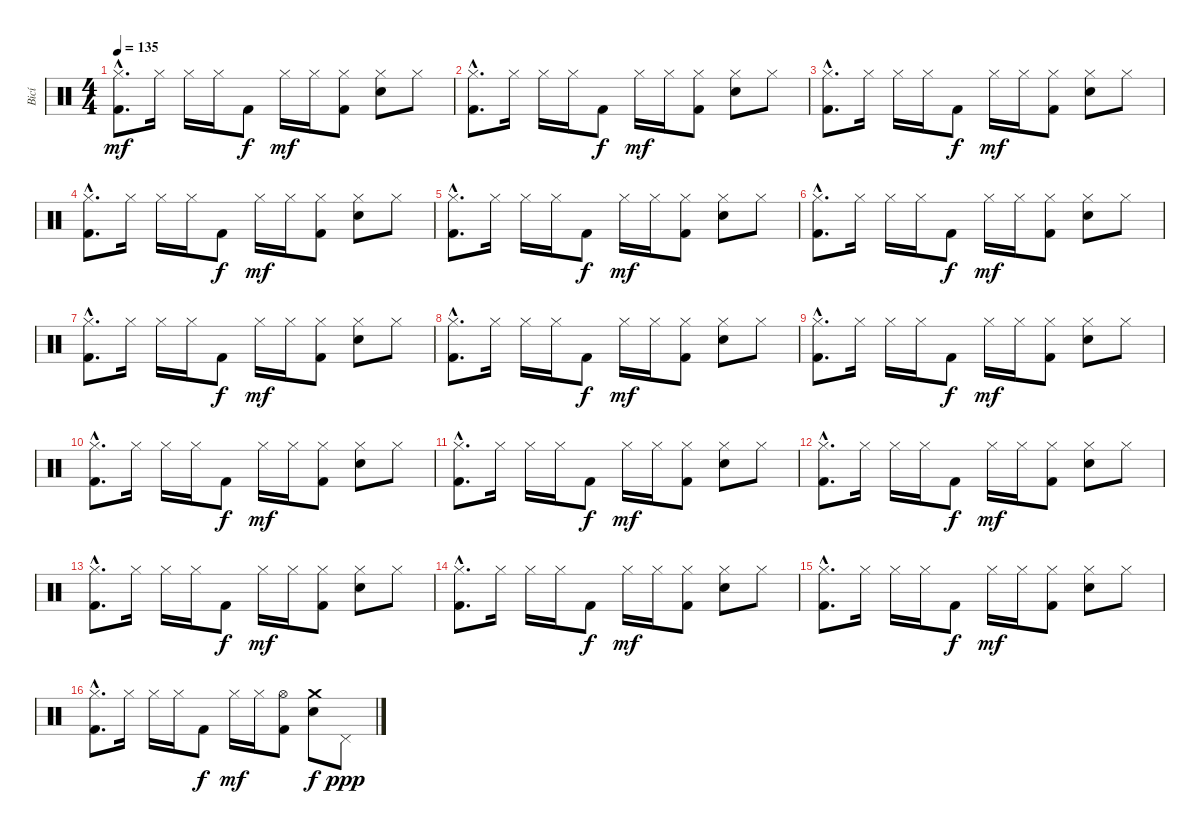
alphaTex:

\track ("Bicí" "Bicí") {instrument percussion}
\staff {score}
\articulation defaults
\ts (4 4)
\tempo 135
\clef neutral
\ks c
("Hi-Hat (closed)"{hac} "Kick (hit) 2"{hac}).8{d dy mf} "Hi-Hat (closed)".16 "Hi-Hat (closed)".16 "Hi-Hat (closed)".16 "Kick (hit) 2".8{dy f} "Hi-Hat (closed)".16{dy mf} "Hi-Hat (closed)".16 ("Hi-Hat (closed)" "Kick (hit) 2").8 ("Hi-Hat (closed)" "Electric Snare (hit)").8 "Hi-Hat (closed)".8 |
("Hi-Hat (closed)"{hac} "Kick (hit) 2"{hac}).8{d} "Hi-Hat (closed)".16 "Hi-Hat (closed)".16 "Hi-Hat (closed)".16 "Kick (hit) 2".8{dy f} "Hi-Hat (closed)".16{dy mf} "Hi-Hat (closed)".16 ("Hi-Hat (closed)" "Kick (hit) 2").8 ("Hi-Hat (closed)" "Electric Snare (hit)").8 "Hi-Hat (closed)".8 |
("Hi-Hat (closed)"{hac} "Kick (hit) 2"{hac}).8{d} "Hi-Hat (closed)".16 "Hi-Hat (closed)".16 "Hi-Hat (closed)".16 "Kick (hit) 2".8{dy f} "Hi-Hat (closed)".16{dy mf} "Hi-Hat (closed)".16 ("Hi-Hat (closed)" "Kick (hit) 2").8 ("Hi-Hat (closed)" "Electric Snare (hit)").8 "Hi-Hat (closed)".8 |
("Hi-Hat (closed)"{hac} "Kick (hit) 2"{hac}).8{d} "Hi-Hat (closed)".16 "Hi-Hat (closed)".16 "Hi-Hat (closed)".16 "Kick (hit) 2".8{dy f} "Hi-Hat (closed)".16{dy mf} "Hi-Hat (closed)".16 ("Hi-Hat (closed)" "Kick (hit) 2").8 ("Hi-Hat (closed)" "Electric Snare (hit)").8 "Hi-Hat (closed)".8 |
("Hi-Hat (closed)"{hac} "Kick (hit) 2"{hac}).8{d} "Hi-Hat (closed)".16 "Hi-Hat (closed)".16 "Hi-Hat (closed)".16 "Kick (hit) 2".8{dy f} "Hi-Hat (closed)".16{dy mf} "Hi-Hat (closed)".16 ("Hi-Hat (closed)" "Kick (hit) 2").8 ("Hi-Hat (closed)" "Electric Snare (hit)").8 "Hi-Hat (closed)".8 |
("Hi-Hat (closed)"{hac} "Kick (hit) 2"{hac}).8{d} "Hi-Hat (closed)".16 "Hi-Hat (closed)".16 "Hi-Hat (closed)".16 "Kick (hit) 2".8{dy f} "Hi-Hat (closed)".16{dy mf} "Hi-Hat (closed)".16 ("Hi-Hat (closed)" "Kick (hit) 2").8 ("Hi-Hat (closed)" "Electric Snare (hit)").8 "Hi-Hat (closed)".8 |
("Hi-Hat (closed)"{hac} "Kick (hit) 2"{hac}).8{d} "Hi-Hat (closed)".16 "Hi-Hat (closed)".16 "Hi-Hat (closed)".16 "Kick (hit) 2".8{dy f} "Hi-Hat (closed)".16{dy mf} "Hi-Hat (closed)".16 ("Hi-Hat (closed)" "Kick (hit) 2").8 ("Hi-Hat (closed)" "Electric Snare (hit)").8 "Hi-Hat (closed)".8 |
("Hi-Hat (closed)"{hac} "Kick (hit) 2"{hac}).8{d} "Hi-Hat (closed)".16 "Hi-Hat (closed)".16 "Hi-Hat (closed)".16 "Kick (hit) 2".8{dy f} "Hi-Hat (closed)".16{dy mf} "Hi-Hat (closed)".16 ("Hi-Hat (closed)" "Kick (hit) 2").8 ("Hi-Hat (closed)" "Electric Snare (hit)").8 "Hi-Hat (closed)".8 |
("Hi-Hat (closed)"{hac} "Kick (hit) 2"{hac}).8{d} "Hi-Hat (closed)".16 "Hi-Hat (closed)".16 "Hi-Hat (closed)".16 "Kick (hit) 2".8{dy f} "Hi-Hat (closed)".16{dy mf} "Hi-Hat (closed)".16 ("Hi-Hat (closed)" "Kick (hit) 2").8 ("Hi-Hat (closed)" "Electric Snare (hit)").8 "Hi-Hat (closed)".8 |
("Hi-Hat (closed)"{hac} "Kick (hit) 2"{hac}).8{d} "Hi-Hat (closed)".16 "Hi-Hat (closed)".16 "Hi-Hat (closed)".16 "Kick (hit) 2".8{dy f} "Hi-Hat (closed)".16{dy mf} "Hi-Hat (closed)".16 ("Hi-Hat (closed)" "Kick (hit) 2").8 ("Hi-Hat (closed)" "Electric Snare (hit)").8 "Hi-Hat (closed)".8 |
("Hi-Hat (closed)"{hac} "Kick (hit) 2"{hac}).8{d} "Hi-Hat (closed)".16 "Hi-Hat (closed)".16 "Hi-Hat (closed)".16 "Kick (hit) 2".8{dy f} "Hi-Hat (closed)".16{dy mf} "Hi-Hat (closed)".16 ("Hi-Hat (closed)" "Kick (hit) 2").8 ("Hi-Hat (closed)" "Electric Snare (hit)").8 "Hi-Hat (closed)".8 |
("Hi-Hat (closed)"{hac} "Kick (hit) 2"{hac}).8{d} "Hi-Hat (closed)".16 "Hi-Hat (closed)".16 "Hi-Hat (closed)".16 "Kick (hit) 2".8{dy f} "Hi-Hat (closed)".16{dy mf} "Hi-Hat (closed)".16 ("Hi-Hat (closed)" "Kick (hit) 2").8 ("Hi-Hat (closed)" "Electric Snare (hit)").8 "Hi-Hat (closed)".8 |
("Hi-Hat (closed)"{hac} "Kick (hit) 2"{hac}).8{d} "Hi-Hat (closed)".16 "Hi-Hat (closed)".16 "Hi-Hat (closed)".16 "Kick (hit) 2".8{dy f} "Hi-Hat (closed)".16{dy mf} "Hi-Hat (closed)".16 ("Hi-Hat (closed)" "Kick (hit) 2").8 ("Hi-Hat (closed)" "Electric Snare (hit)").8 "Hi-Hat (closed)".8 |
("Hi-Hat (closed)"{hac} "Kick (hit) 2"{hac}).8{d} "Hi-Hat (closed)".16 "Hi-Hat (closed)".16 "Hi-Hat (closed)".16 "Kick (hit) 2".8{dy f} "Hi-Hat (closed)".16{dy mf} "Hi-Hat (closed)".16 ("Hi-Hat (closed)" "Kick (hit) 2").8 ("Hi-Hat (closed)" "Electric Snare (hit)").8 "Hi-Hat (closed)".8 |
("Hi-Hat (closed)"{hac} "Kick (hit) 2"{hac}).8{d} "Hi-Hat (closed)".16 "Hi-Hat (closed)".16 "Hi-Hat (closed)".16 "Kick (hit) 2".8{dy f} "Hi-Hat (closed)".16{dy mf} "Hi-Hat (closed)".16 ("Hi-Hat (closed)" "Kick (hit) 2").8 ("Hi-Hat (closed)" "Electric Snare (hit)").8 "Hi-Hat (closed)".8 |
("Hi-Hat (closed)"{hac} "Kick (hit) 2"{hac}).8{d} "Hi-Hat (closed)".16 "Hi-Hat (closed)".16 "Hi-Hat (closed)".16 "Kick (hit) 2".8{dy f} "Hi-Hat (closed)".16{dy mf} "Hi-Hat (closed)".16 ("Hi-Hat (open)" "Kick (hit) 2").8 ("Crash medium (hit)" "Electric Snare (hit)").8{dy f} "Pedal Hi-Hat (hit)".8{dy ppp}
